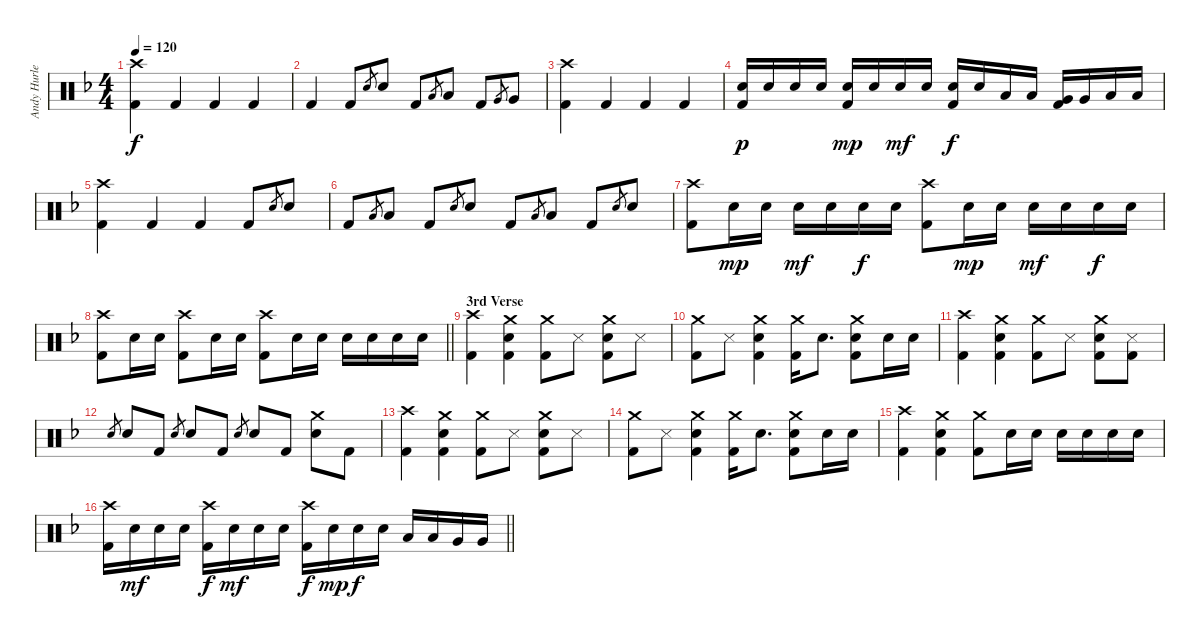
\track ("Andy Hurley" "Andy Hurle") {instrument percussion}
\staff {score}
\articulation defaults
\ts (4 4)
\tempo 120
\clef neutral
\ks dminor
("Crash high (hit)" "Kick (hit) 2").4{dy f} "Kick (hit) 2".4 "Kick (hit) 2".4 "Kick (hit) 2".4 |
"Kick (hit) 2".4 "Kick (hit) 2".8 "Snare (hit) 2".8{gr} "Snare (hit) 2".8 "Kick (hit) 2".8 "Low Tom (hit)".8{gr} "Low Tom (hit)".8 "Kick (hit) 2".8 "Very Low Tom (hit)".8{gr} "Very Low Tom (hit)".8 |
("Crash high (hit)" "Kick (hit) 2").4 "Kick (hit) 2".4 "Kick (hit) 2".4 "Kick (hit) 2".4 |
("Snare (hit) 2" "Kick (hit) 2").16{dy p} "Snare (hit) 2".16 "Snare (hit) 2".16 "Snare (hit) 2".16 ("Snare (hit) 2" "Kick (hit) 2").16{dy mp} "Snare (hit) 2".16 "Snare (hit) 2".16{dy mf} "Snare (hit) 2".16 ("Snare (hit) 2" "Kick (hit) 2").16{dy f} "Snare (hit) 2".16 "Low Tom (hit)".16 "Low Tom (hit)".16 ("Very Low Tom (hit)" "Kick (hit) 2").16 "Very Low Tom (hit)".16 "Low Floor Tom (hit)".16 "Low Floor Tom (hit)".16 |
("Crash high (hit)" "Kick (hit) 2").4 "Kick (hit) 2".4 "Kick (hit) 2".4 "Kick (hit) 2".8 "Snare (hit) 2".8{gr} "Snare (hit) 2".8 |
"Kick (hit) 2".8 "Low Tom (hit)".8{gr} "Low Tom (hit)".8 "Kick (hit) 2".8 "Snare (hit) 2".8{gr} "Snare (hit) 2".8 "Kick (hit) 2".8 "Low Tom (hit)".8{gr} "Low Tom (hit)".8 "Kick (hit) 2".8 "Snare (hit) 2".8{gr} "Snare (hit) 2".8 |
("Crash high (hit)" "Kick (hit) 2").8 "Snare (hit) 2".16{dy mp} "Snare (hit) 2".16 "Snare (hit) 2".16{dy mf} "Snare (hit) 2".16 "Snare (hit) 2".16{dy f} "Snare (hit) 2".16 ("Crash high (hit)" "Kick (hit) 2").8 "Snare (hit) 2".16{dy mp} "Snare (hit) 2".16 "Snare (hit) 2".16{dy mf} "Snare (hit) 2".16 "Snare (hit) 2".16{dy f} "Snare (hit) 2".16 |
\barLineRight lightlight
("Crash high (hit)" "Kick (hit) 2").8 "Snare (hit) 2".16 "Snare (hit) 2".16 ("Crash high (hit)" "Kick (hit) 2").8 "Snare (hit) 2".16 "Snare (hit) 2".16 ("Crash high (hit)" "Kick (hit) 2").8 "Snare (hit) 2".16 "Snare (hit) 2".16 "Snare (hit) 2".16 "Snare (hit) 2".16 "Snare (hit) 2".16 "Snare (hit) 2".16 |
\section ("" "3rd Verse")
("Crash high (hit)" "Kick (hit) 2").4 ("Crash medium (hit)" "Snare (hit) 2" "Kick (hit) 2").4 ("Crash medium (hit)" "Kick (hit) 2").8 "Snare (side stick) 3".8 ("Crash medium (hit)" "Snare (hit) 2" "Kick (hit) 2").8 "Snare (side stick) 3".8 |
("Crash medium (hit)" "Kick (hit) 2").8 "Snare (side stick) 3".8 ("Crash medium (hit)" "Snare (hit) 2" "Kick (hit) 2").4 ("Crash medium (hit)" "Kick (hit) 2").16 "Snare (hit) 2".8{d} ("Crash medium (hit)" "Snare (hit) 2" "Kick (hit) 2").8 "Snare (hit) 2".16 "Snare (hit) 2".16 |
("Crash high (hit)" "Kick (hit) 2").4 ("Crash medium (hit)" "Snare (hit) 2" "Kick (hit) 2").4 ("Crash medium (hit)" "Kick (hit) 2").8 "Snare (side stick) 3".8 ("Crash medium (hit)" "Snare (hit) 2" "Kick (hit) 2").8 ("Snare (side stick) 3" "Kick (hit) 2").8 |
"Snare (hit) 2".8{gr} "Snare (hit) 2".8 "Kick (hit) 2".8 "Snare (hit) 2".8{gr} "Snare (hit) 2".8 "Kick (hit) 2".8 "Snare (hit) 2".8{gr} "Snare (hit) 2".8 "Kick (hit) 2".8 ("Crash medium (hit)" "Snare (hit) 2").8 "Kick (hit) 2".8 |
("Crash high (hit)" "Kick (hit) 2").4 ("Crash medium (hit)" "Snare (hit) 2" "Kick (hit) 2").4 ("Crash medium (hit)" "Kick (hit) 2").8 "Snare (side stick) 3".8 ("Crash medium (hit)" "Snare (hit) 2" "Kick (hit) 2").8 "Snare (side stick) 3".8 |
("Crash medium (hit)" "Kick (hit) 2").8 "Snare (side stick) 3".8 ("Crash medium (hit)" "Snare (hit) 2" "Kick (hit) 2").4 ("Crash medium (hit)" "Kick (hit) 2").16 "Snare (hit) 2".8{d} ("Crash medium (hit)" "Snare (hit) 2" "Kick (hit) 2").8 "Snare (hit) 2".16 "Snare (hit) 2".16 |
("Crash high (hit)" "Kick (hit) 2").4 ("Crash medium (hit)" "Snare (hit) 2" "Kick (hit) 2").4 ("Crash medium (hit)" "Kick (hit) 2").8 "Snare (hit) 2".16 "Snare (hit) 2".16 "Snare (hit) 2".16 "Snare (hit) 2".16 "Snare (hit) 2".16 "Snare (hit) 2".16 |
\barLineRight lightlight
("Crash high (hit)" "Kick (hit) 2").16 "Snare (hit) 2".16{dy mf} "Snare (hit) 2".16 "Snare (hit) 2".16 ("Crash high (hit)" "Kick (hit) 2").16{dy f} "Snare (hit) 2".16{dy mf} "Snare (hit) 2".16 "Snare (hit) 2".16 ("Crash high (hit)" "Kick (hit) 2").16{dy f} "Snare (hit) 2".16{dy mp} "Snare (hit) 2".16{dy f} "Snare (hit) 2".16 "Low Tom (hit)".16 "Low Tom (hit)".16 "Very Low Tom (hit)".16 "Very Low Tom (hit)".16
